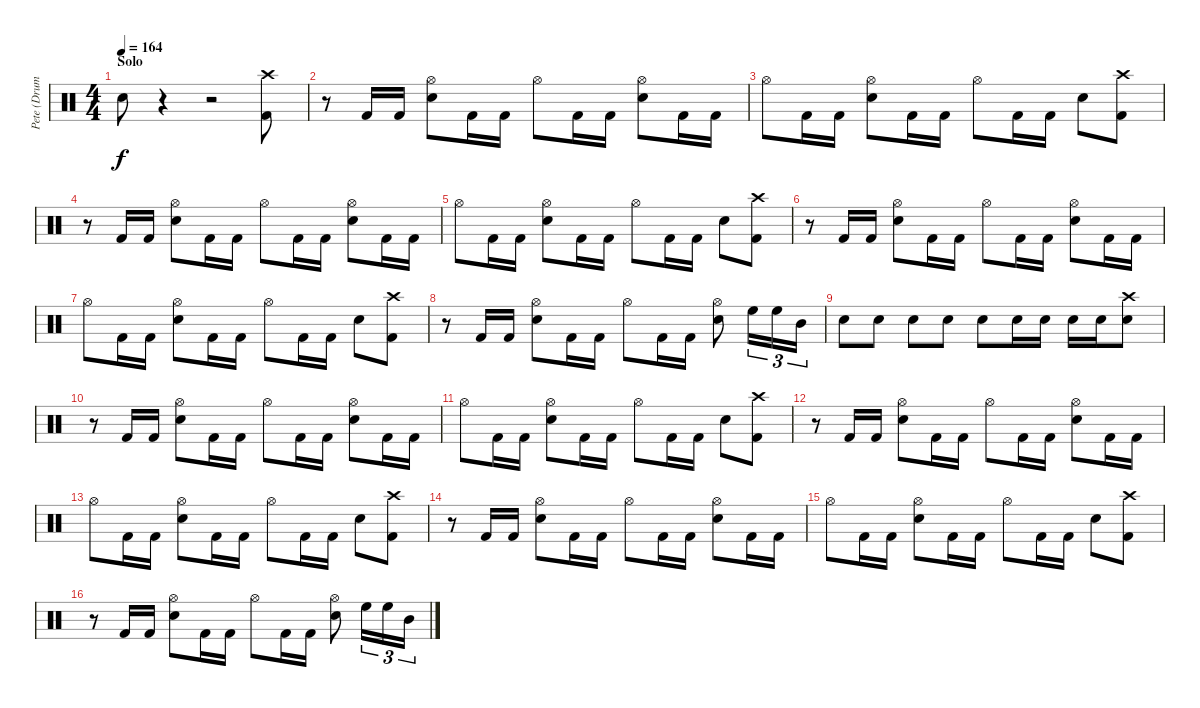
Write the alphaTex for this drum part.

\track ("Pete (Drums)" "Pete (Drum") {instrument percussion}
\staff {score}
\articulation defaults
\ts (4 4)
\section ("" "Solo")
\tempo 164
\clef neutral
\ks c "Snare (hit) 2".8{dy f}
r.4 r.2 ("Crash high (hit)" "Kick (hit) 2").8 |
r.8 "Kick (hit) 2".16 "Kick (hit) 2".16 ("Hi-Hat (open)" "Snare (hit) 2").8 "Kick (hit) 2".16 "Kick (hit) 2".16 "Hi-Hat (open)".8 "Kick (hit) 2".16 "Kick (hit) 2".16 ("Hi-Hat (open)" "Snare (hit) 2").8 "Kick (hit) 2".16 "Kick (hit) 2".16 |
"Hi-Hat (open)".8 "Kick (hit) 2".16 "Kick (hit) 2".16 ("Hi-Hat (open)" "Snare (hit) 2").8 "Kick (hit) 2".16 "Kick (hit) 2".16 "Hi-Hat (open)".8 "Kick (hit) 2".16 "Kick (hit) 2".16 "Snare (hit) 2".8 ("Crash high (hit)" "Kick (hit) 2").8 |
r.8 "Kick (hit) 2".16 "Kick (hit) 2".16 ("Hi-Hat (open)" "Snare (hit) 2").8 "Kick (hit) 2".16 "Kick (hit) 2".16 "Hi-Hat (open)".8 "Kick (hit) 2".16 "Kick (hit) 2".16 ("Hi-Hat (open)" "Snare (hit) 2").8 "Kick (hit) 2".16 "Kick (hit) 2".16 |
"Hi-Hat (open)".8 "Kick (hit) 2".16 "Kick (hit) 2".16 ("Hi-Hat (open)" "Snare (hit) 2").8 "Kick (hit) 2".16 "Kick (hit) 2".16 "Hi-Hat (open)".8 "Kick (hit) 2".16 "Kick (hit) 2".16 "Snare (hit) 2".8 ("Crash high (hit)" "Kick (hit) 2").8 |
r.8 "Kick (hit) 2".16 "Kick (hit) 2".16 ("Hi-Hat (open)" "Snare (hit) 2").8 "Kick (hit) 2".16 "Kick (hit) 2".16 "Hi-Hat (open)".8 "Kick (hit) 2".16 "Kick (hit) 2".16 ("Hi-Hat (open)" "Snare (hit) 2").8 "Kick (hit) 2".16 "Kick (hit) 2".16 |
"Hi-Hat (open)".8 "Kick (hit) 2".16 "Kick (hit) 2".16 ("Hi-Hat (open)" "Snare (hit) 2").8 "Kick (hit) 2".16 "Kick (hit) 2".16 "Hi-Hat (open)".8 "Kick (hit) 2".16 "Kick (hit) 2".16 "Snare (hit) 2".8 ("Crash high (hit)" "Kick (hit) 2").8 |
r.8 "Kick (hit) 2".16 "Kick (hit) 2".16 ("Hi-Hat (open)" "Snare (hit) 2").8 "Kick (hit) 2".16 "Kick (hit) 2".16 "Hi-Hat (open)".8 "Kick (hit) 2".16 "Kick (hit) 2".16 ("Hi-Hat (open)" "Snare (hit) 2").8 "High Floor Tom (hit)".16{tu (3 2)} "High Floor Tom (hit)".16{tu (3 2)} "Mid Tom (hit)".16{tu (3 2)} |
"Snare (hit) 2".8 "Snare (hit) 2".8 "Snare (hit) 2".8 "Snare (hit) 2".8 "Snare (hit) 2".8 "Snare (hit) 2".16 "Snare (hit) 2".16 "Snare (hit) 2".16 "Snare (hit) 2".16 ("Crash high (hit)" "Snare (hit) 2").8 |
r.8 "Kick (hit) 2".16 "Kick (hit) 2".16 ("Hi-Hat (open)" "Snare (hit) 2").8 "Kick (hit) 2".16 "Kick (hit) 2".16 "Hi-Hat (open)".8 "Kick (hit) 2".16 "Kick (hit) 2".16 ("Hi-Hat (open)" "Snare (hit) 2").8 "Kick (hit) 2".16 "Kick (hit) 2".16 |
"Hi-Hat (open)".8 "Kick (hit) 2".16 "Kick (hit) 2".16 ("Hi-Hat (open)" "Snare (hit) 2").8 "Kick (hit) 2".16 "Kick (hit) 2".16 "Hi-Hat (open)".8 "Kick (hit) 2".16 "Kick (hit) 2".16 "Snare (hit) 2".8 ("Crash high (hit)" "Kick (hit) 2").8 |
r.8 "Kick (hit) 2".16 "Kick (hit) 2".16 ("Hi-Hat (open)" "Snare (hit) 2").8 "Kick (hit) 2".16 "Kick (hit) 2".16 "Hi-Hat (open)".8 "Kick (hit) 2".16 "Kick (hit) 2".16 ("Hi-Hat (open)" "Snare (hit) 2").8 "Kick (hit) 2".16 "Kick (hit) 2".16 |
"Hi-Hat (open)".8 "Kick (hit) 2".16 "Kick (hit) 2".16 ("Hi-Hat (open)" "Snare (hit) 2").8 "Kick (hit) 2".16 "Kick (hit) 2".16 "Hi-Hat (open)".8 "Kick (hit) 2".16 "Kick (hit) 2".16 "Snare (hit) 2".8 ("Crash high (hit)" "Kick (hit) 2").8 |
r.8 "Kick (hit) 2".16 "Kick (hit) 2".16 ("Hi-Hat (open)" "Snare (hit) 2").8 "Kick (hit) 2".16 "Kick (hit) 2".16 "Hi-Hat (open)".8 "Kick (hit) 2".16 "Kick (hit) 2".16 ("Hi-Hat (open)" "Snare (hit) 2").8 "Kick (hit) 2".16 "Kick (hit) 2".16 |
"Hi-Hat (open)".8 "Kick (hit) 2".16 "Kick (hit) 2".16 ("Hi-Hat (open)" "Snare (hit) 2").8 "Kick (hit) 2".16 "Kick (hit) 2".16 "Hi-Hat (open)".8 "Kick (hit) 2".16 "Kick (hit) 2".16 "Snare (hit) 2".8 ("Crash high (hit)" "Kick (hit) 2").8 |
r.8 "Kick (hit) 2".16 "Kick (hit) 2".16 ("Hi-Hat (open)" "Snare (hit) 2").8 "Kick (hit) 2".16 "Kick (hit) 2".16 "Hi-Hat (open)".8 "Kick (hit) 2".16 "Kick (hit) 2".16 ("Hi-Hat (open)" "Snare (hit) 2").8 "High Floor Tom (hit)".16{tu (3 2)} "High Floor Tom (hit)".16{tu (3 2)} "Mid Tom (hit)".16{tu (3 2)}
